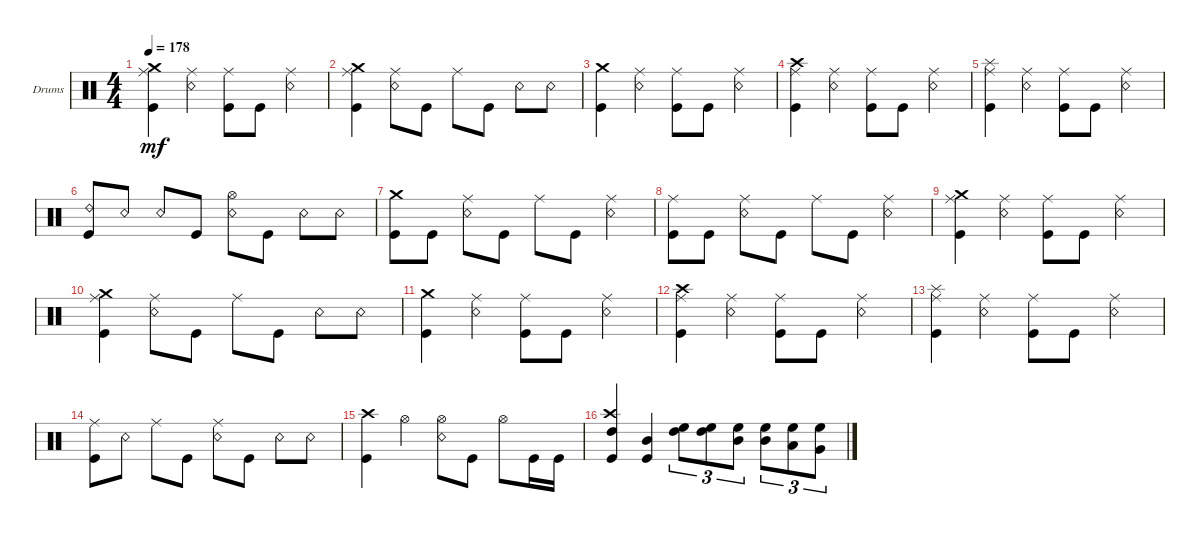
\defaultSystemsLayout 4
\bracketExtendMode groupsimilarinstruments
\firstSystemTrackNameOrientation horizontal
\otherSystemsTrackNameOrientation horizontal
\track ("Drumkit" "Drums") {instrument percussion}
\staff {score}
\articulation defaults
\ts (4 4)
\tempo 178
\clef neutral
\ks c
("Kick (hit)" "Ride (middle)" "Crash medium (hit)").4{dy mf} ("Ride (middle)" "Snare (rim shot)").4 ("Ride (middle)" "Kick (hit)").8 "Kick (hit)".8 ("Snare (rim shot)" "Ride (middle)").4 |
("Kick (hit)" "Ride (middle)" "Crash medium (hit)").4 ("Ride (middle)" "Snare (rim shot)").8 "Kick (hit)".8 "Ride (middle)".8 "Kick (hit)".8 "Snare (rim shot)".8 "Snare (rim shot)".8 |
("Kick (hit)" "Crash medium (hit)").4 ("Ride (middle)" "Snare (rim shot)").4 ("Ride (middle)" "Kick (hit)").8 "Kick (hit)".8 ("Snare (rim shot)" "Ride (middle)").4 |
("Kick (hit)" "Ride (middle)" "Crash high (hit)").4 ("Ride (middle)" "Snare (rim shot)").4 ("Ride (middle)" "Kick (hit)").8 "Kick (hit)".8 ("Snare (rim shot)" "Ride (middle)").4 |
("Kick (hit)" "Ride (middle)" "Splash (hit)").4 ("Ride (middle)" "Snare (rim shot)").4 ("Ride (middle)" "Kick (hit)").8 "Kick (hit)".8 ("Snare (rim shot)" "Ride (middle)").4 |
("Kick (hit)" "Ride (bell) 2").8 "Snare (rim shot)".8 "Snare (rim shot)".8 "Kick (hit)".8 ("Snare (rim shot)" "Hi-Hat (open)").8 "Kick (hit)".8 "Snare (rim shot)".8 "Snare (rim shot)".8 |
("Kick (hit)" "Crash medium (hit)").8 "Kick (hit)".8 ("Snare (rim shot)" "Ride (middle)").8 "Kick (hit)".8 "Ride (middle)".8 "Kick (hit)".8 ("Snare (rim shot)" "Ride (middle)").4 |
("Kick (hit)" "Ride (middle)").8 "Kick (hit)".8 ("Snare (rim shot)" "Ride (middle)").8 "Kick (hit)".8 "Ride (middle)".8 "Kick (hit)".8 ("Snare (rim shot)" "Ride (middle)").4 |
("Kick (hit)" "Ride (middle)" "Crash medium (hit)").4 ("Ride (middle)" "Snare (rim shot)").4 ("Ride (middle)" "Kick (hit)").8 "Kick (hit)".8 ("Snare (rim shot)" "Ride (middle)").4 |
("Kick (hit)" "Ride (middle)" "Crash medium (hit)").4 ("Ride (middle)" "Snare (rim shot)").8 "Kick (hit)".8 "Ride (middle)".8 "Kick (hit)".8 "Snare (rim shot)".8 "Snare (rim shot)".8 |
("Kick (hit)" "Crash medium (hit)").4 ("Ride (middle)" "Snare (rim shot)").4 ("Ride (middle)" "Kick (hit)").8 "Kick (hit)".8 ("Snare (rim shot)" "Ride (middle)").4 |
("Kick (hit)" "Ride (middle)" "Crash high (hit)").4 ("Ride (middle)" "Snare (rim shot)").4 ("Ride (middle)" "Kick (hit)").8 "Kick (hit)".8 ("Snare (rim shot)" "Ride (middle)").4 |
("Kick (hit)" "Ride (middle)" "Splash (hit)").4 ("Ride (middle)" "Snare (rim shot)").4 ("Ride (middle)" "Kick (hit)").8 "Kick (hit)".8 ("Snare (rim shot)" "Ride (middle)").4 |
("Kick (hit)" "Ride (middle)").8 "Snare (rim shot)".8 "Ride (middle)".8 "Kick (hit)".8 ("Snare (rim shot)" "Ride (middle)").8 "Kick (hit)".8 "Snare (rim shot)".8 "Snare (rim shot)".8 |
("Kick (hit)" "Crash high (hit)").4 "Hi-Hat (open)".4 ("Hi-Hat (open)" "Snare (rim shot)").8 "Kick (hit)".8 "Hi-Hat (open)".8 "Kick (hit)".16 "Kick (hit)".16 |
("Kick (hit)" "Crash high (hit)" "High Tom (hit)").4 ("Mid Tom (hit)" "Kick (hit)").4 ("High Floor Tom (hit)" "High Tom (hit)").8{tu (3 2)} ("High Floor Tom (hit)" "High Tom (hit)").8{tu (3 2)} ("High Floor Tom (hit)" "Mid Tom (hit)").8{tu (3 2)} ("High Floor Tom (hit)" "Mid Tom (hit)").8{tu (3 2)} ("High Floor Tom (hit)" "Low Tom (hit)").8{tu (3 2)} ("High Floor Tom (hit)" "Very Low Tom (hit)").8{tu (3 2)}
